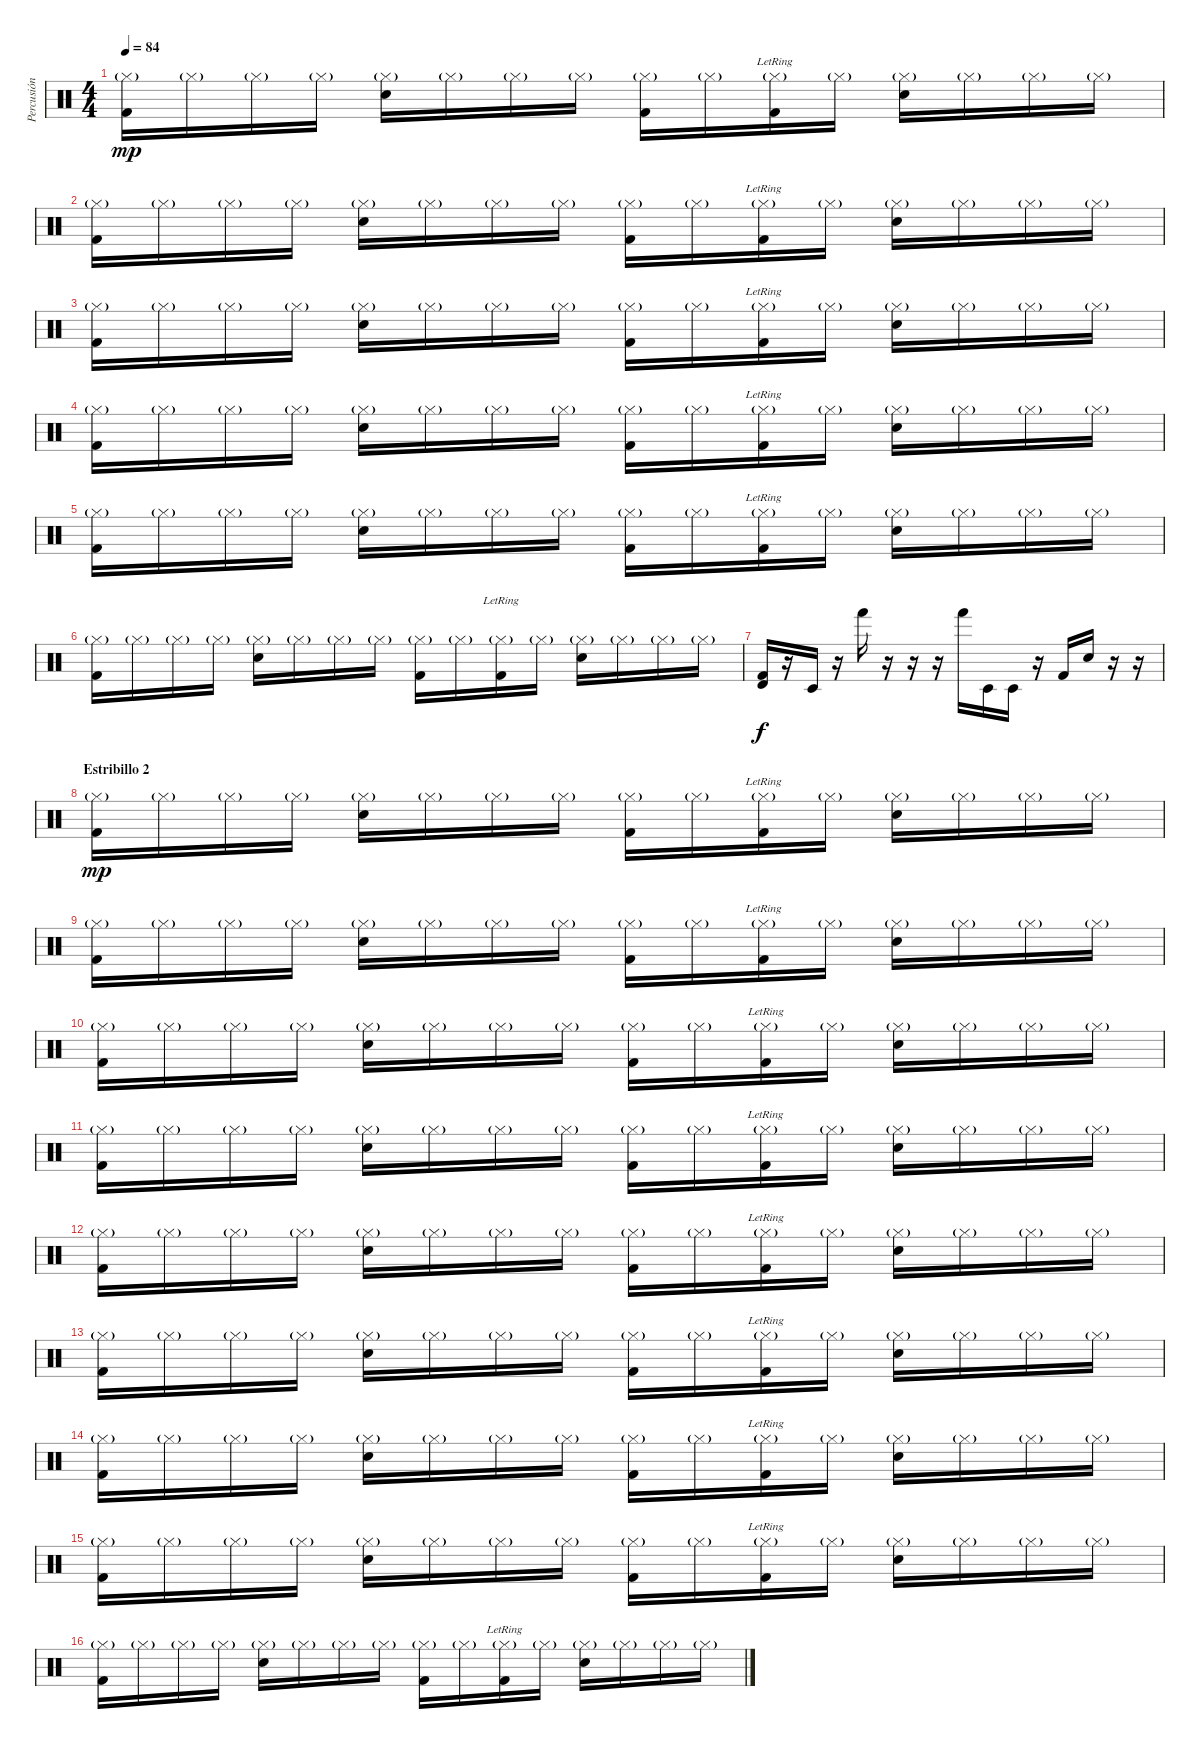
\track ("Percusión 2" "Percusión ") {instrument percussion}
\staff {score}
\articulation defaults
\ts (4 4)
\tempo 84
\clef neutral
\ks c
("Hi-Hat (closed)"{g} "Kick (hit) 2").16{dy mp} "Hi-Hat (closed)"{g}.16 "Hi-Hat (closed)"{g}.16 "Hi-Hat (closed)"{g}.16 ("Hi-Hat (closed)"{g} "Snare (hit) 2").16 "Hi-Hat (closed)"{g}.16 "Hi-Hat (closed)"{g}.16 "Hi-Hat (closed)"{g}.16 ("Hi-Hat (closed)"{g} "Kick (hit) 2").16 "Hi-Hat (closed)"{g}.16 ("Hi-Hat (closed)"{g} "Kick (hit) 2"{lr}).16 "Hi-Hat (closed)"{g}.16 ("Hi-Hat (closed)"{g} "Snare (hit) 2").16 "Hi-Hat (closed)"{g}.16 "Hi-Hat (closed)"{g}.16 "Hi-Hat (closed)"{g}.16 |
("Hi-Hat (closed)"{g} "Kick (hit) 2").16 "Hi-Hat (closed)"{g}.16 "Hi-Hat (closed)"{g}.16 "Hi-Hat (closed)"{g}.16 ("Hi-Hat (closed)"{g} "Snare (hit) 2").16 "Hi-Hat (closed)"{g}.16 "Hi-Hat (closed)"{g}.16 "Hi-Hat (closed)"{g}.16 ("Hi-Hat (closed)"{g} "Kick (hit) 2").16 "Hi-Hat (closed)"{g}.16 ("Hi-Hat (closed)"{g} "Kick (hit) 2"{lr}).16 "Hi-Hat (closed)"{g}.16 ("Hi-Hat (closed)"{g} "Snare (hit) 2").16 "Hi-Hat (closed)"{g}.16 "Hi-Hat (closed)"{g}.16 "Hi-Hat (closed)"{g}.16 |
("Hi-Hat (closed)"{g} "Kick (hit) 2").16 "Hi-Hat (closed)"{g}.16 "Hi-Hat (closed)"{g}.16 "Hi-Hat (closed)"{g}.16 ("Hi-Hat (closed)"{g} "Snare (hit) 2").16 "Hi-Hat (closed)"{g}.16 "Hi-Hat (closed)"{g}.16 "Hi-Hat (closed)"{g}.16 ("Hi-Hat (closed)"{g} "Kick (hit) 2").16 "Hi-Hat (closed)"{g}.16 ("Hi-Hat (closed)"{g} "Kick (hit) 2"{lr}).16 "Hi-Hat (closed)"{g}.16 ("Hi-Hat (closed)"{g} "Snare (hit) 2").16 "Hi-Hat (closed)"{g}.16 "Hi-Hat (closed)"{g}.16 "Hi-Hat (closed)"{g}.16 |
("Hi-Hat (closed)"{g} "Kick (hit) 2").16 "Hi-Hat (closed)"{g}.16 "Hi-Hat (closed)"{g}.16 "Hi-Hat (closed)"{g}.16 ("Hi-Hat (closed)"{g} "Snare (hit) 2").16 "Hi-Hat (closed)"{g}.16 "Hi-Hat (closed)"{g}.16 "Hi-Hat (closed)"{g}.16 ("Hi-Hat (closed)"{g} "Kick (hit) 2").16 "Hi-Hat (closed)"{g}.16 ("Hi-Hat (closed)"{g} "Kick (hit) 2"{lr}).16 "Hi-Hat (closed)"{g}.16 ("Hi-Hat (closed)"{g} "Snare (hit) 2").16 "Hi-Hat (closed)"{g}.16 "Hi-Hat (closed)"{g}.16 "Hi-Hat (closed)"{g}.16 |
("Hi-Hat (closed)"{g} "Kick (hit) 2").16 "Hi-Hat (closed)"{g}.16 "Hi-Hat (closed)"{g}.16 "Hi-Hat (closed)"{g}.16 ("Hi-Hat (closed)"{g} "Snare (hit) 2").16 "Hi-Hat (closed)"{g}.16 "Hi-Hat (closed)"{g}.16 "Hi-Hat (closed)"{g}.16 ("Hi-Hat (closed)"{g} "Kick (hit) 2").16 "Hi-Hat (closed)"{g}.16 ("Hi-Hat (closed)"{g} "Kick (hit) 2"{lr}).16 "Hi-Hat (closed)"{g}.16 ("Hi-Hat (closed)"{g} "Snare (hit) 2").16 "Hi-Hat (closed)"{g}.16 "Hi-Hat (closed)"{g}.16 "Hi-Hat (closed)"{g}.16 |
("Hi-Hat (closed)"{g} "Kick (hit) 2").16 "Hi-Hat (closed)"{g}.16 "Hi-Hat (closed)"{g}.16 "Hi-Hat (closed)"{g}.16 ("Hi-Hat (closed)"{g} "Snare (hit) 2").16 "Hi-Hat (closed)"{g}.16 "Hi-Hat (closed)"{g}.16 "Hi-Hat (closed)"{g}.16 ("Hi-Hat (closed)"{g} "Kick (hit) 2").16 "Hi-Hat (closed)"{g}.16 ("Hi-Hat (closed)"{g} "Kick (hit) 2"{lr}).16 "Hi-Hat (closed)"{g}.16 ("Hi-Hat (closed)"{g} "Snare (hit) 2").16 "Hi-Hat (closed)"{g}.16 "Hi-Hat (closed)"{g}.16 "Hi-Hat (closed)"{g}.16 |
("Timbale high (hit)" "Kick (hit) 2").16{dy f} r.16 "Timbale low (hit)".16 r.16 "Hand (hit)".16 r.16 r.16 r.16 "Hand (hit)".16 "Timbale low (hit)".16 "Timbale low (hit)".16 r.16 "Kick (hit) 2".16 "Snare (hit) 2".16 r.16 r.16 |
\section ("" "Estribillo 2")
("Hi-Hat (closed)"{g} "Kick (hit) 2").16{dy mp} "Hi-Hat (closed)"{g}.16 "Hi-Hat (closed)"{g}.16 "Hi-Hat (closed)"{g}.16 ("Hi-Hat (closed)"{g} "Snare (hit) 2").16 "Hi-Hat (closed)"{g}.16 "Hi-Hat (closed)"{g}.16 "Hi-Hat (closed)"{g}.16 ("Hi-Hat (closed)"{g} "Kick (hit) 2").16 "Hi-Hat (closed)"{g}.16 ("Hi-Hat (closed)"{g} "Kick (hit) 2"{lr}).16 "Hi-Hat (closed)"{g}.16 ("Hi-Hat (closed)"{g} "Snare (hit) 2").16 "Hi-Hat (closed)"{g}.16 "Hi-Hat (closed)"{g}.16 "Hi-Hat (closed)"{g}.16 |
("Hi-Hat (closed)"{g} "Kick (hit) 2").16 "Hi-Hat (closed)"{g}.16 "Hi-Hat (closed)"{g}.16 "Hi-Hat (closed)"{g}.16 ("Hi-Hat (closed)"{g} "Snare (hit) 2").16 "Hi-Hat (closed)"{g}.16 "Hi-Hat (closed)"{g}.16 "Hi-Hat (closed)"{g}.16 ("Hi-Hat (closed)"{g} "Kick (hit) 2").16 "Hi-Hat (closed)"{g}.16 ("Hi-Hat (closed)"{g} "Kick (hit) 2"{lr}).16 "Hi-Hat (closed)"{g}.16 ("Hi-Hat (closed)"{g} "Snare (hit) 2").16 "Hi-Hat (closed)"{g}.16 "Hi-Hat (closed)"{g}.16 "Hi-Hat (closed)"{g}.16 |
("Hi-Hat (closed)"{g} "Kick (hit) 2").16 "Hi-Hat (closed)"{g}.16 "Hi-Hat (closed)"{g}.16 "Hi-Hat (closed)"{g}.16 ("Hi-Hat (closed)"{g} "Snare (hit) 2").16 "Hi-Hat (closed)"{g}.16 "Hi-Hat (closed)"{g}.16 "Hi-Hat (closed)"{g}.16 ("Hi-Hat (closed)"{g} "Kick (hit) 2").16 "Hi-Hat (closed)"{g}.16 ("Hi-Hat (closed)"{g} "Kick (hit) 2"{lr}).16 "Hi-Hat (closed)"{g}.16 ("Hi-Hat (closed)"{g} "Snare (hit) 2").16 "Hi-Hat (closed)"{g}.16 "Hi-Hat (closed)"{g}.16 "Hi-Hat (closed)"{g}.16 |
("Hi-Hat (closed)"{g} "Kick (hit) 2").16 "Hi-Hat (closed)"{g}.16 "Hi-Hat (closed)"{g}.16 "Hi-Hat (closed)"{g}.16 ("Hi-Hat (closed)"{g} "Snare (hit) 2").16 "Hi-Hat (closed)"{g}.16 "Hi-Hat (closed)"{g}.16 "Hi-Hat (closed)"{g}.16 ("Hi-Hat (closed)"{g} "Kick (hit) 2").16 "Hi-Hat (closed)"{g}.16 ("Hi-Hat (closed)"{g} "Kick (hit) 2"{lr}).16 "Hi-Hat (closed)"{g}.16 ("Hi-Hat (closed)"{g} "Snare (hit) 2").16 "Hi-Hat (closed)"{g}.16 "Hi-Hat (closed)"{g}.16 "Hi-Hat (closed)"{g}.16 |
("Hi-Hat (closed)"{g} "Kick (hit) 2").16 "Hi-Hat (closed)"{g}.16 "Hi-Hat (closed)"{g}.16 "Hi-Hat (closed)"{g}.16 ("Hi-Hat (closed)"{g} "Snare (hit) 2").16 "Hi-Hat (closed)"{g}.16 "Hi-Hat (closed)"{g}.16 "Hi-Hat (closed)"{g}.16 ("Hi-Hat (closed)"{g} "Kick (hit) 2").16 "Hi-Hat (closed)"{g}.16 ("Hi-Hat (closed)"{g} "Kick (hit) 2"{lr}).16 "Hi-Hat (closed)"{g}.16 ("Hi-Hat (closed)"{g} "Snare (hit) 2").16 "Hi-Hat (closed)"{g}.16 "Hi-Hat (closed)"{g}.16 "Hi-Hat (closed)"{g}.16 |
("Hi-Hat (closed)"{g} "Kick (hit) 2").16 "Hi-Hat (closed)"{g}.16 "Hi-Hat (closed)"{g}.16 "Hi-Hat (closed)"{g}.16 ("Hi-Hat (closed)"{g} "Snare (hit) 2").16 "Hi-Hat (closed)"{g}.16 "Hi-Hat (closed)"{g}.16 "Hi-Hat (closed)"{g}.16 ("Hi-Hat (closed)"{g} "Kick (hit) 2").16 "Hi-Hat (closed)"{g}.16 ("Hi-Hat (closed)"{g} "Kick (hit) 2"{lr}).16 "Hi-Hat (closed)"{g}.16 ("Hi-Hat (closed)"{g} "Snare (hit) 2").16 "Hi-Hat (closed)"{g}.16 "Hi-Hat (closed)"{g}.16 "Hi-Hat (closed)"{g}.16 |
("Hi-Hat (closed)"{g} "Kick (hit) 2").16 "Hi-Hat (closed)"{g}.16 "Hi-Hat (closed)"{g}.16 "Hi-Hat (closed)"{g}.16 ("Hi-Hat (closed)"{g} "Snare (hit) 2").16 "Hi-Hat (closed)"{g}.16 "Hi-Hat (closed)"{g}.16 "Hi-Hat (closed)"{g}.16 ("Hi-Hat (closed)"{g} "Kick (hit) 2").16 "Hi-Hat (closed)"{g}.16 ("Hi-Hat (closed)"{g} "Kick (hit) 2"{lr}).16 "Hi-Hat (closed)"{g}.16 ("Hi-Hat (closed)"{g} "Snare (hit) 2").16 "Hi-Hat (closed)"{g}.16 "Hi-Hat (closed)"{g}.16 "Hi-Hat (closed)"{g}.16 |
("Hi-Hat (closed)"{g} "Kick (hit) 2").16 "Hi-Hat (closed)"{g}.16 "Hi-Hat (closed)"{g}.16 "Hi-Hat (closed)"{g}.16 ("Hi-Hat (closed)"{g} "Snare (hit) 2").16 "Hi-Hat (closed)"{g}.16 "Hi-Hat (closed)"{g}.16 "Hi-Hat (closed)"{g}.16 ("Hi-Hat (closed)"{g} "Kick (hit) 2").16 "Hi-Hat (closed)"{g}.16 ("Hi-Hat (closed)"{g} "Kick (hit) 2"{lr}).16 "Hi-Hat (closed)"{g}.16 ("Hi-Hat (closed)"{g} "Snare (hit) 2").16 "Hi-Hat (closed)"{g}.16 "Hi-Hat (closed)"{g}.16 "Hi-Hat (closed)"{g}.16 |
("Hi-Hat (closed)"{g} "Kick (hit) 2").16 "Hi-Hat (closed)"{g}.16 "Hi-Hat (closed)"{g}.16 "Hi-Hat (closed)"{g}.16 ("Hi-Hat (closed)"{g} "Snare (hit) 2").16 "Hi-Hat (closed)"{g}.16 "Hi-Hat (closed)"{g}.16 "Hi-Hat (closed)"{g}.16 ("Hi-Hat (closed)"{g} "Kick (hit) 2").16 "Hi-Hat (closed)"{g}.16 ("Hi-Hat (closed)"{g} "Kick (hit) 2"{lr}).16 "Hi-Hat (closed)"{g}.16 ("Hi-Hat (closed)"{g} "Snare (hit) 2").16 "Hi-Hat (closed)"{g}.16 "Hi-Hat (closed)"{g}.16 "Hi-Hat (closed)"{g}.16
